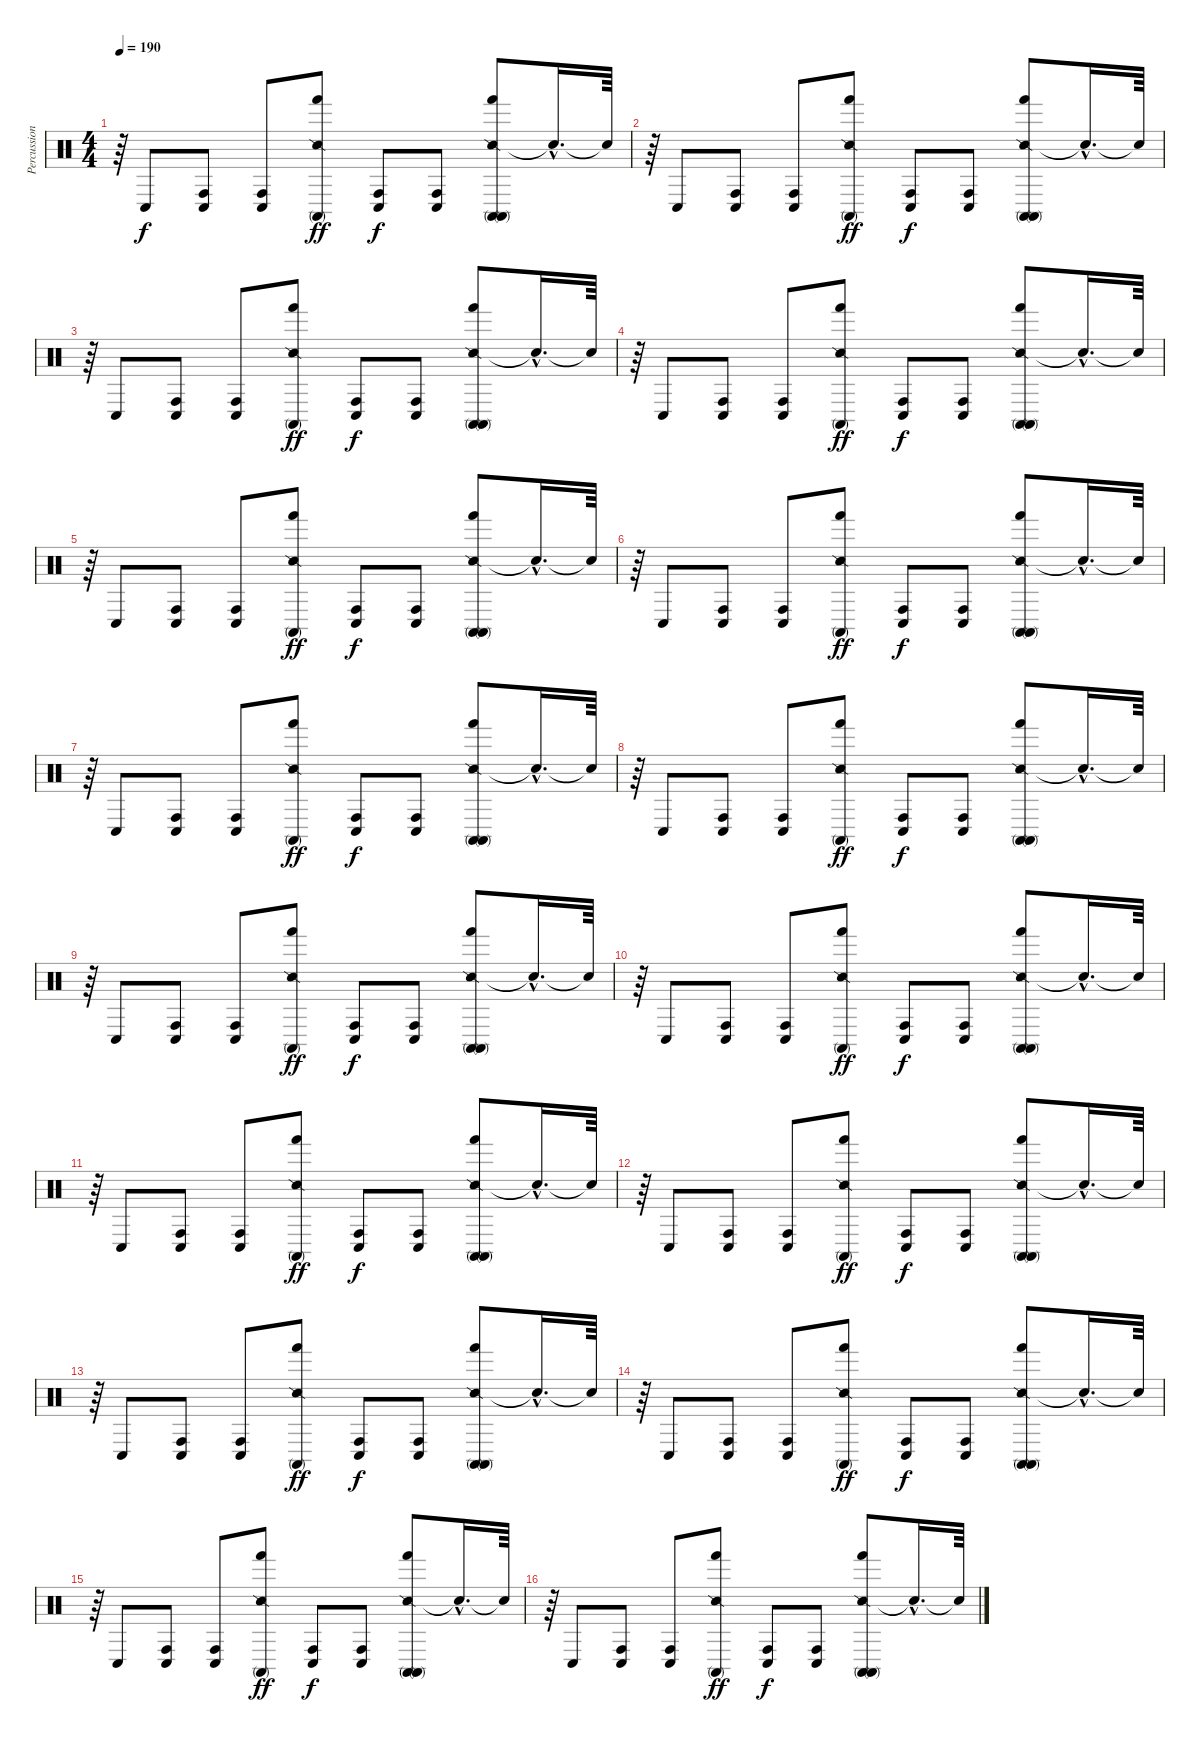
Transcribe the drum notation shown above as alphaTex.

\track ("Percussion" "Percussion") {instrument percussion}
\staff {score}
\articulation defaults
\ts (4 4)
\tempo 190
\clef neutral
\ks c
r.64{dy f} "Conga low (hit)".8 ("Conga high (hit)" "Conga low (hit)").8 ("Conga high (hit)" "Conga low (hit)").8 ("Snare (side stick) 2" "Hand (hit)" "Conga high (mute)").8{dy ff} ("Conga high (hit)" "Conga low (hit)").8{dy f} ("Conga high (hit)" "Conga low (hit)").8 ("Snare (side stick) 2" "Hand (hit)" "Conga high (mute)" "Conga high (mute)").8 "Snare (hit)"{hac t}.16{d} "Snare (hit)"{t}.64 |
r.64 "Conga low (hit)".8 ("Conga high (hit)" "Conga low (hit)").8 ("Conga high (hit)" "Conga low (hit)").8 ("Snare (side stick) 2" "Hand (hit)" "Conga high (mute)").8{dy ff} ("Conga high (hit)" "Conga low (hit)").8{dy f} ("Conga high (hit)" "Conga low (hit)").8 ("Snare (side stick) 2" "Hand (hit)" "Conga high (mute)" "Conga high (mute)").8 "Snare (hit)"{hac t}.16{d} "Snare (hit)"{t}.64 |
r.64 "Conga low (hit)".8 ("Conga high (hit)" "Conga low (hit)").8 ("Conga high (hit)" "Conga low (hit)").8 ("Snare (side stick) 2" "Hand (hit)" "Conga high (mute)").8{dy ff} ("Conga high (hit)" "Conga low (hit)").8{dy f} ("Conga high (hit)" "Conga low (hit)").8 ("Snare (side stick) 2" "Hand (hit)" "Conga high (mute)" "Conga high (mute)").8 "Snare (hit)"{hac t}.16{d} "Snare (hit)"{t}.64 |
r.64 "Conga low (hit)".8 ("Conga high (hit)" "Conga low (hit)").8 ("Conga high (hit)" "Conga low (hit)").8 ("Snare (side stick) 2" "Hand (hit)" "Conga high (mute)").8{dy ff} ("Conga high (hit)" "Conga low (hit)").8{dy f} ("Conga high (hit)" "Conga low (hit)").8 ("Snare (side stick) 2" "Hand (hit)" "Conga high (mute)" "Conga high (mute)").8 "Snare (hit)"{hac t}.16{d} "Snare (hit)"{t}.64 |
r.64 "Conga low (hit)".8 ("Conga high (hit)" "Conga low (hit)").8 ("Conga high (hit)" "Conga low (hit)").8 ("Snare (side stick) 2" "Hand (hit)" "Conga high (mute)").8{dy ff} ("Conga high (hit)" "Conga low (hit)").8{dy f} ("Conga high (hit)" "Conga low (hit)").8 ("Snare (side stick) 2" "Hand (hit)" "Conga high (mute)" "Conga high (mute)").8 "Snare (hit)"{hac t}.16{d} "Snare (hit)"{t}.64 |
r.64 "Conga low (hit)".8 ("Conga high (hit)" "Conga low (hit)").8 ("Conga high (hit)" "Conga low (hit)").8 ("Snare (side stick) 2" "Hand (hit)" "Conga high (mute)").8{dy ff} ("Conga high (hit)" "Conga low (hit)").8{dy f} ("Conga high (hit)" "Conga low (hit)").8 ("Snare (side stick) 2" "Hand (hit)" "Conga high (mute)" "Conga high (mute)").8 "Snare (hit)"{hac t}.16{d} "Snare (hit)"{t}.64 |
r.64 "Conga low (hit)".8 ("Conga high (hit)" "Conga low (hit)").8 ("Conga high (hit)" "Conga low (hit)").8 ("Snare (side stick) 2" "Hand (hit)" "Conga high (mute)").8{dy ff} ("Conga high (hit)" "Conga low (hit)").8{dy f} ("Conga high (hit)" "Conga low (hit)").8 ("Snare (side stick) 2" "Hand (hit)" "Conga high (mute)" "Conga high (mute)").8 "Snare (hit)"{hac t}.16{d} "Snare (hit)"{t}.64 |
r.64 "Conga low (hit)".8 ("Conga high (hit)" "Conga low (hit)").8 ("Conga high (hit)" "Conga low (hit)").8 ("Snare (side stick) 2" "Hand (hit)" "Conga high (mute)").8{dy ff} ("Conga high (hit)" "Conga low (hit)").8{dy f} ("Conga high (hit)" "Conga low (hit)").8 ("Snare (side stick) 2" "Hand (hit)" "Conga high (mute)" "Conga high (mute)").8 "Snare (hit)"{hac t}.16{d} "Snare (hit)"{t}.64 |
r.64 "Conga low (hit)".8 ("Conga high (hit)" "Conga low (hit)").8 ("Conga high (hit)" "Conga low (hit)").8 ("Snare (side stick) 2" "Hand (hit)" "Conga high (mute)").8{dy ff} ("Conga high (hit)" "Conga low (hit)").8{dy f} ("Conga high (hit)" "Conga low (hit)").8 ("Snare (side stick) 2" "Hand (hit)" "Conga high (mute)" "Conga high (mute)").8 "Snare (hit)"{hac t}.16{d} "Snare (hit)"{t}.64 |
r.64 "Conga low (hit)".8 ("Conga high (hit)" "Conga low (hit)").8 ("Conga high (hit)" "Conga low (hit)").8 ("Snare (side stick) 2" "Hand (hit)" "Conga high (mute)").8{dy ff} ("Conga high (hit)" "Conga low (hit)").8{dy f} ("Conga high (hit)" "Conga low (hit)").8 ("Snare (side stick) 2" "Hand (hit)" "Conga high (mute)" "Conga high (mute)").8 "Snare (hit)"{hac t}.16{d} "Snare (hit)"{t}.64 |
r.64 "Conga low (hit)".8 ("Conga high (hit)" "Conga low (hit)").8 ("Conga high (hit)" "Conga low (hit)").8 ("Snare (side stick) 2" "Hand (hit)" "Conga high (mute)").8{dy ff} ("Conga high (hit)" "Conga low (hit)").8{dy f} ("Conga high (hit)" "Conga low (hit)").8 ("Snare (side stick) 2" "Hand (hit)" "Conga high (mute)" "Conga high (mute)").8 "Snare (hit)"{hac t}.16{d} "Snare (hit)"{t}.64 |
r.64 "Conga low (hit)".8 ("Conga high (hit)" "Conga low (hit)").8 ("Conga high (hit)" "Conga low (hit)").8 ("Snare (side stick) 2" "Hand (hit)" "Conga high (mute)").8{dy ff} ("Conga high (hit)" "Conga low (hit)").8{dy f} ("Conga high (hit)" "Conga low (hit)").8 ("Snare (side stick) 2" "Hand (hit)" "Conga high (mute)" "Conga high (mute)").8 "Snare (hit)"{hac t}.16{d} "Snare (hit)"{t}.64 |
r.64 "Conga low (hit)".8 ("Conga high (hit)" "Conga low (hit)").8 ("Conga high (hit)" "Conga low (hit)").8 ("Snare (side stick) 2" "Hand (hit)" "Conga high (mute)").8{dy ff} ("Conga high (hit)" "Conga low (hit)").8{dy f} ("Conga high (hit)" "Conga low (hit)").8 ("Snare (side stick) 2" "Hand (hit)" "Conga high (mute)" "Conga high (mute)").8 "Snare (hit)"{hac t}.16{d} "Snare (hit)"{t}.64 |
r.64 "Conga low (hit)".8 ("Conga high (hit)" "Conga low (hit)").8 ("Conga high (hit)" "Conga low (hit)").8 ("Snare (side stick) 2" "Hand (hit)" "Conga high (mute)").8{dy ff} ("Conga high (hit)" "Conga low (hit)").8{dy f} ("Conga high (hit)" "Conga low (hit)").8 ("Snare (side stick) 2" "Hand (hit)" "Conga high (mute)" "Conga high (mute)").8 "Snare (hit)"{hac t}.16{d} "Snare (hit)"{t}.64 |
r.64 "Conga low (hit)".8 ("Conga high (hit)" "Conga low (hit)").8 ("Conga high (hit)" "Conga low (hit)").8 ("Snare (side stick) 2" "Hand (hit)" "Conga high (mute)").8{dy ff} ("Conga high (hit)" "Conga low (hit)").8{dy f} ("Conga high (hit)" "Conga low (hit)").8 ("Snare (side stick) 2" "Hand (hit)" "Conga high (mute)" "Conga high (mute)").8 "Snare (hit)"{hac t}.16{d} "Snare (hit)"{t}.64 |
r.64 "Conga low (hit)".8 ("Conga high (hit)" "Conga low (hit)").8 ("Conga high (hit)" "Conga low (hit)").8 ("Snare (side stick) 2" "Hand (hit)" "Conga high (mute)").8{dy ff} ("Conga high (hit)" "Conga low (hit)").8{dy f} ("Conga high (hit)" "Conga low (hit)").8 ("Snare (side stick) 2" "Hand (hit)" "Conga high (mute)" "Conga high (mute)").8 "Snare (hit)"{hac t}.16{d} "Snare (hit)"{t}.64
